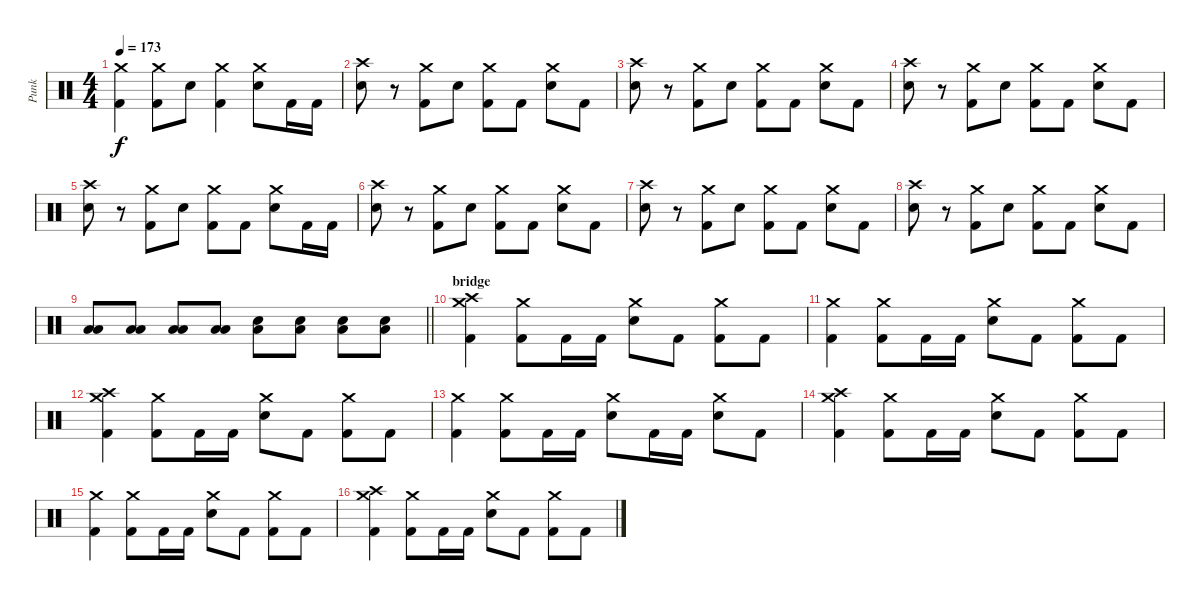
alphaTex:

\track ("Punk" "Punk") {instrument percussion}
\staff {score}
\articulation defaults
\ts (4 4)
\tempo 173
\clef neutral
\ks c
("Crash medium (hit)" "Kick (hit) 2").4{dy f} ("Crash medium (hit)" "Kick (hit) 2").8 "Electric Snare (hit)".8 ("Crash medium (hit)" "Kick (hit) 2").4 ("Crash medium (hit)" "Electric Snare (hit)").8 "Kick (hit) 2".16 "Kick (hit) 2".16 |
("Crash high (hit)" "Electric Snare (hit)").8 r.8 ("Crash medium (hit)" "Kick (hit) 2").8 "Electric Snare (hit)".8 ("Crash medium (hit)" "Kick (hit) 2").8 "Kick (hit) 2".8 ("Crash medium (hit)" "Electric Snare (hit)").8 "Kick (hit) 2".8 |
("Crash high (hit)" "Electric Snare (hit)").8 r.8 ("Crash medium (hit)" "Kick (hit) 2").8 "Electric Snare (hit)".8 ("Crash medium (hit)" "Kick (hit) 2").8 "Kick (hit) 2".8 ("Crash medium (hit)" "Electric Snare (hit)").8 "Kick (hit) 2".8 |
("Crash high (hit)" "Electric Snare (hit)").8 r.8 ("Crash medium (hit)" "Kick (hit) 2").8 "Electric Snare (hit)".8 ("Crash medium (hit)" "Kick (hit) 2").8 "Kick (hit) 2".8 ("Crash medium (hit)" "Electric Snare (hit)").8 "Kick (hit) 2".8 |
("Crash high (hit)" "Electric Snare (hit)").8 r.8 ("Crash medium (hit)" "Kick (hit) 2").8 "Electric Snare (hit)".8 ("Crash medium (hit)" "Kick (hit) 2").8 "Kick (hit) 2".8 ("Crash medium (hit)" "Electric Snare (hit)").8 "Kick (hit) 2".16 "Kick (hit) 2".16 |
("Crash high (hit)" "Electric Snare (hit)").8 r.8 ("Crash medium (hit)" "Kick (hit) 2").8 "Electric Snare (hit)".8 ("Crash medium (hit)" "Kick (hit) 2").8 "Kick (hit) 2".8 ("Crash medium (hit)" "Electric Snare (hit)").8 "Kick (hit) 2".8 |
("Crash high (hit)" "Electric Snare (hit)").8 r.8 ("Crash medium (hit)" "Kick (hit) 2").8 "Electric Snare (hit)".8 ("Crash medium (hit)" "Kick (hit) 2").8 "Kick (hit) 2".8 ("Crash medium (hit)" "Electric Snare (hit)").8 "Kick (hit) 2".8 |
("Crash high (hit)" "Electric Snare (hit)").8 r.8 ("Crash medium (hit)" "Kick (hit) 2").8 "Electric Snare (hit)".8 ("Crash medium (hit)" "Kick (hit) 2").8 "Kick (hit) 2".8 ("Crash medium (hit)" "Electric Snare (hit)").8 "Kick (hit) 2".8 |
\barLineRight lightlight
("Low Tom (hit)" "Low Floor Tom (hit)").8 ("Low Tom (hit)" "Low Floor Tom (hit)").8 ("Low Tom (hit)" "Low Floor Tom (hit)").8 ("Low Tom (hit)" "Low Floor Tom (hit)").8 ("Electric Snare (hit)" "Low Floor Tom (hit)").8 ("Electric Snare (hit)" "Low Floor Tom (hit)").8 ("Electric Snare (hit)" "Low Floor Tom (hit)").8 ("Electric Snare (hit)" "Low Floor Tom (hit)").8 |
\section ("" "bridge ")
("Crash medium (hit)" "Crash high (hit)" "Kick (hit) 2").4 ("Crash medium (hit)" "Kick (hit) 2").8 "Kick (hit) 2".16 "Kick (hit) 2".16 ("Crash medium (hit)" "Electric Snare (hit)").8 "Kick (hit) 2".8 ("Crash medium (hit)" "Kick (hit) 2").8 "Kick (hit) 2".8 |
("Crash medium (hit)" "Kick (hit) 2").4 ("Crash medium (hit)" "Kick (hit) 2").8 "Kick (hit) 2".16 "Kick (hit) 2".16 ("Crash medium (hit)" "Electric Snare (hit)").8 "Kick (hit) 2".8 ("Crash medium (hit)" "Kick (hit) 2").8 "Kick (hit) 2".8 |
("Crash medium (hit)" "Crash high (hit)" "Kick (hit) 2").4 ("Crash medium (hit)" "Kick (hit) 2").8 "Kick (hit) 2".16 "Kick (hit) 2".16 ("Crash medium (hit)" "Electric Snare (hit)").8 "Kick (hit) 2".8 ("Crash medium (hit)" "Kick (hit) 2").8 "Kick (hit) 2".8 |
("Crash medium (hit)" "Kick (hit) 2").4 ("Crash medium (hit)" "Kick (hit) 2").8 "Kick (hit) 2".16 "Kick (hit) 2".16 ("Crash medium (hit)" "Electric Snare (hit)").8 "Kick (hit) 2".16 "Kick (hit) 2".16 ("Crash medium (hit)" "Electric Snare (hit)").8 "Kick (hit) 2".8 |
("Crash medium (hit)" "Crash high (hit)" "Kick (hit) 2").4 ("Crash medium (hit)" "Kick (hit) 2").8 "Kick (hit) 2".16 "Kick (hit) 2".16 ("Crash medium (hit)" "Electric Snare (hit)").8 "Kick (hit) 2".8 ("Crash medium (hit)" "Kick (hit) 2").8 "Kick (hit) 2".8 |
("Crash medium (hit)" "Kick (hit) 2").4 ("Crash medium (hit)" "Kick (hit) 2").8 "Kick (hit) 2".16 "Kick (hit) 2".16 ("Crash medium (hit)" "Electric Snare (hit)").8 "Kick (hit) 2".8 ("Crash medium (hit)" "Kick (hit) 2").8 "Kick (hit) 2".8 |
("Crash medium (hit)" "Crash high (hit)" "Kick (hit) 2").4 ("Crash medium (hit)" "Kick (hit) 2").8 "Kick (hit) 2".16 "Kick (hit) 2".16 ("Crash medium (hit)" "Electric Snare (hit)").8 "Kick (hit) 2".8 ("Crash medium (hit)" "Kick (hit) 2").8 "Kick (hit) 2".8
